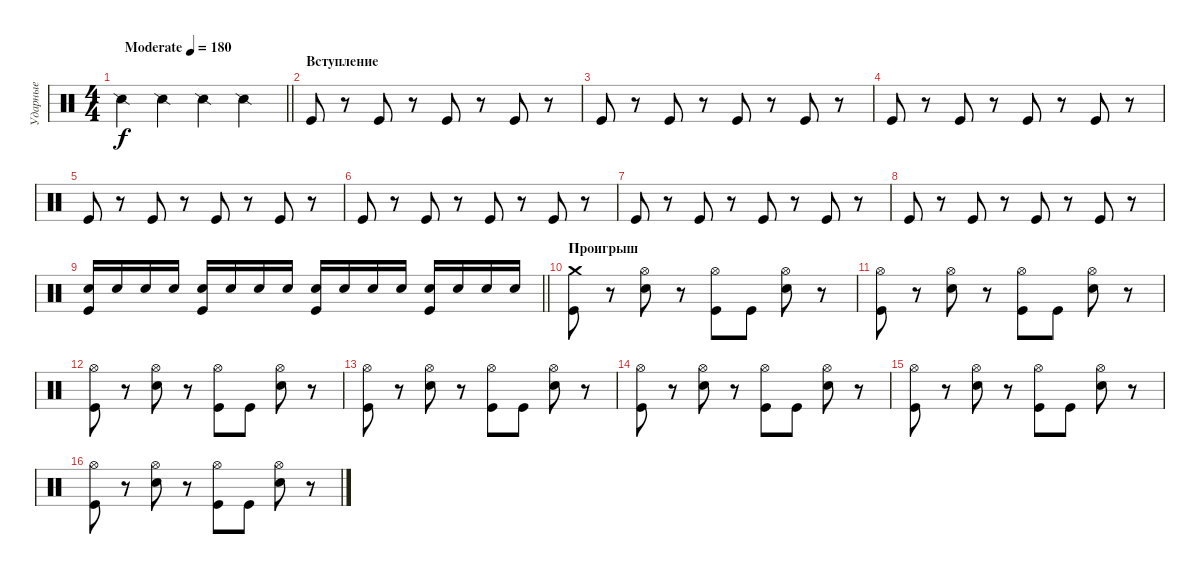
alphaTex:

\track ("Ударные" "Ударные") {instrument percussion}
\staff {score}
\articulation defaults
\ts (4 4)
\tempo (180 "Moderate")
\clef neutral
\barLineRight lightlight
\ks c "Snare (side stick) 2".4{dy f} "Snare (side stick) 2".4 "Snare (side stick) 2".4 "Snare (side stick) 2".4
|
\section ("" "Вступление")
"Kick (hit)".8 r.8 "Kick (hit)".8 r.8 "Kick (hit)".8 r.8 "Kick (hit)".8 r.8 |
"Kick (hit)".8 r.8 "Kick (hit)".8 r.8 "Kick (hit)".8 r.8 "Kick (hit)".8 r.8 |
"Kick (hit)".8 r.8 "Kick (hit)".8 r.8 "Kick (hit)".8 r.8 "Kick (hit)".8 r.8 |
"Kick (hit)".8 r.8 "Kick (hit)".8 r.8 "Kick (hit)".8 r.8 "Kick (hit)".8 r.8 |
"Kick (hit)".8 r.8 "Kick (hit)".8 r.8 "Kick (hit)".8 r.8 "Kick (hit)".8 r.8 |
"Kick (hit)".8 r.8 "Kick (hit)".8 r.8 "Kick (hit)".8 r.8 "Kick (hit)".8 r.8 |
"Kick (hit)".8 r.8 "Kick (hit)".8 r.8 "Kick (hit)".8 r.8 "Kick (hit)".8 r.8 |
\barLineRight lightlight
("Electric Snare (hit)" "Kick (hit)").16 "Electric Snare (hit)".16 "Electric Snare (hit)".16 "Electric Snare (hit)".16 ("Electric Snare (hit)" "Kick (hit)").16 "Electric Snare (hit)".16 "Electric Snare (hit)".16 "Electric Snare (hit)".16 ("Electric Snare (hit)" "Kick (hit)").16 "Electric Snare (hit)".16 "Electric Snare (hit)".16 "Electric Snare (hit)".16 ("Electric Snare (hit)" "Kick (hit)").16 "Electric Snare (hit)".16 "Electric Snare (hit)".16 "Electric Snare (hit)".16 |
\section ("" "Проигрыш")
("Crash medium (hit)" "Kick (hit)").8 r.8 ("Hi-Hat (open)" "Electric Snare (hit)").8 r.8 ("Hi-Hat (open)" "Kick (hit)").8 "Kick (hit)".8 ("Hi-Hat (open)" "Electric Snare (hit)").8 r.8 |
("Hi-Hat (open)" "Kick (hit)").8 r.8 ("Hi-Hat (open)" "Electric Snare (hit)").8 r.8 ("Hi-Hat (open)" "Kick (hit)").8 "Kick (hit)".8 ("Hi-Hat (open)" "Electric Snare (hit)").8 r.8 |
("Hi-Hat (open)" "Kick (hit)").8 r.8 ("Hi-Hat (open)" "Electric Snare (hit)").8 r.8 ("Hi-Hat (open)" "Kick (hit)").8 "Kick (hit)".8 ("Hi-Hat (open)" "Electric Snare (hit)").8 r.8 |
("Hi-Hat (open)" "Kick (hit)").8 r.8 ("Hi-Hat (open)" "Electric Snare (hit)").8 r.8 ("Hi-Hat (open)" "Kick (hit)").8 "Kick (hit)".8 ("Hi-Hat (open)" "Electric Snare (hit)").8 r.8 |
("Hi-Hat (open)" "Kick (hit)").8 r.8 ("Hi-Hat (open)" "Electric Snare (hit)").8 r.8 ("Hi-Hat (open)" "Kick (hit)").8 "Kick (hit)".8 ("Hi-Hat (open)" "Electric Snare (hit)").8 r.8 |
("Hi-Hat (open)" "Kick (hit)").8 r.8 ("Hi-Hat (open)" "Electric Snare (hit)").8 r.8 ("Hi-Hat (open)" "Kick (hit)").8 "Kick (hit)".8 ("Hi-Hat (open)" "Electric Snare (hit)").8 r.8 |
("Hi-Hat (open)" "Kick (hit)").8 r.8 ("Hi-Hat (open)" "Electric Snare (hit)").8 r.8 ("Hi-Hat (open)" "Kick (hit)").8 "Kick (hit)".8 ("Hi-Hat (open)" "Electric Snare (hit)").8 r.8
